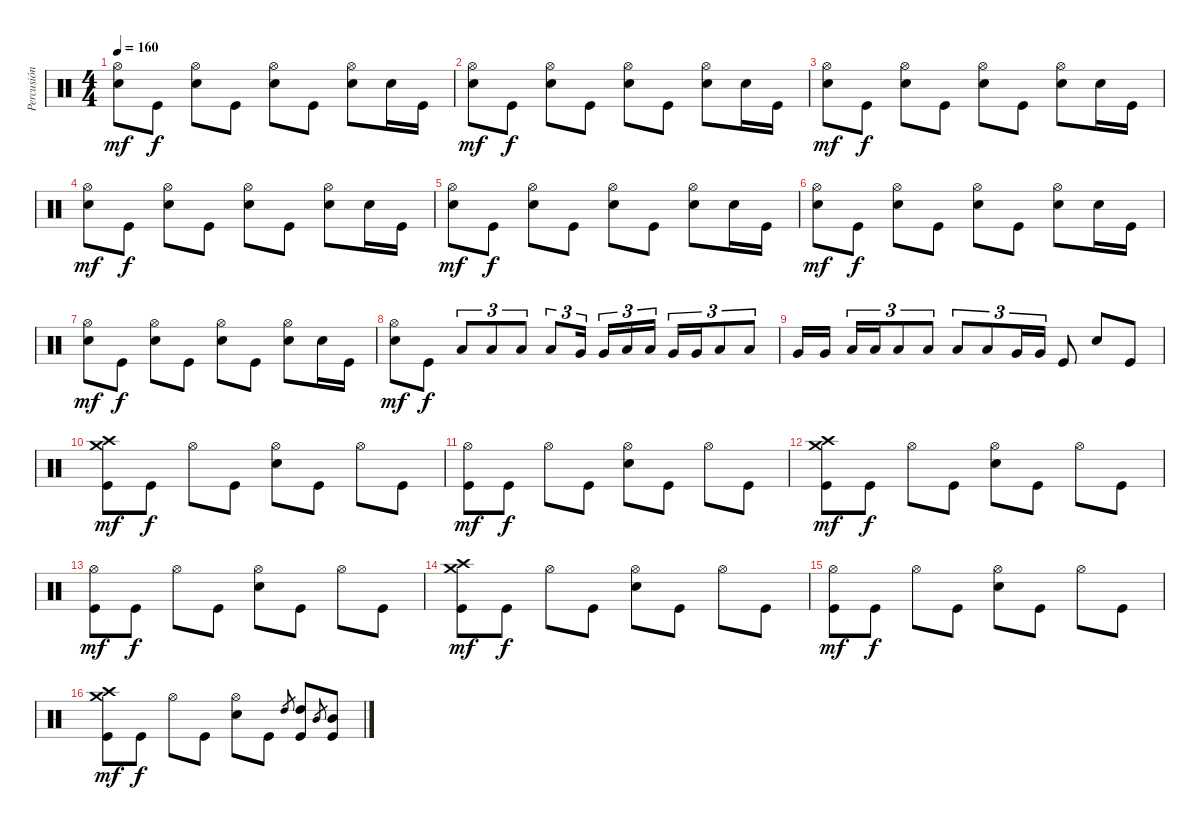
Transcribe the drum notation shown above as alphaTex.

\track ("Percusión" "Percusión") {instrument percussion}
\staff {score}
\articulation defaults
\ts (4 4)
\tempo 160
\clef neutral
\ks c
("Hi-Hat (open)" "Electric Snare (hit)").8{dy mf} "Kick (hit)".8{dy f} ("Hi-Hat (open)" "Electric Snare (hit)").8 "Kick (hit)".8 ("Hi-Hat (open)" "Electric Snare (hit)").8 "Kick (hit)".8 ("Hi-Hat (open)" "Electric Snare (hit)").8 "Snare (hit)".16 "Kick (hit)".16 |
("Hi-Hat (open)" "Electric Snare (hit)").8{dy mf} "Kick (hit)".8{dy f} ("Hi-Hat (open)" "Electric Snare (hit)").8 "Kick (hit)".8 ("Hi-Hat (open)" "Electric Snare (hit)").8 "Kick (hit)".8 ("Hi-Hat (open)" "Electric Snare (hit)").8 "Snare (hit)".16 "Kick (hit)".16 |
("Hi-Hat (open)" "Electric Snare (hit)").8{dy mf} "Kick (hit)".8{dy f} ("Hi-Hat (open)" "Electric Snare (hit)").8 "Kick (hit)".8 ("Hi-Hat (open)" "Electric Snare (hit)").8 "Kick (hit)".8 ("Hi-Hat (open)" "Electric Snare (hit)").8 "Snare (hit)".16 "Kick (hit)".16 |
("Hi-Hat (open)" "Electric Snare (hit)").8{dy mf} "Kick (hit)".8{dy f} ("Hi-Hat (open)" "Electric Snare (hit)").8 "Kick (hit)".8 ("Hi-Hat (open)" "Electric Snare (hit)").8 "Kick (hit)".8 ("Hi-Hat (open)" "Electric Snare (hit)").8 "Snare (hit)".16 "Kick (hit)".16 |
("Hi-Hat (open)" "Electric Snare (hit)").8{dy mf} "Kick (hit)".8{dy f} ("Hi-Hat (open)" "Electric Snare (hit)").8 "Kick (hit)".8 ("Hi-Hat (open)" "Electric Snare (hit)").8 "Kick (hit)".8 ("Hi-Hat (open)" "Electric Snare (hit)").8 "Snare (hit)".16 "Kick (hit)".16 |
("Hi-Hat (open)" "Electric Snare (hit)").8{dy mf} "Kick (hit)".8{dy f} ("Hi-Hat (open)" "Electric Snare (hit)").8 "Kick (hit)".8 ("Hi-Hat (open)" "Electric Snare (hit)").8 "Kick (hit)".8 ("Hi-Hat (open)" "Electric Snare (hit)").8 "Snare (hit)".16 "Kick (hit)".16 |
("Hi-Hat (open)" "Electric Snare (hit)").8{dy mf} "Kick (hit)".8{dy f} ("Hi-Hat (open)" "Electric Snare (hit)").8 "Kick (hit)".8 ("Hi-Hat (open)" "Electric Snare (hit)").8 "Kick (hit)".8 ("Hi-Hat (open)" "Electric Snare (hit)").8 "Snare (hit)".16 "Kick (hit)".16 |
("Hi-Hat (open)" "Electric Snare (hit)").8{dy mf} "Kick (hit)".8{dy f} "Low Tom (hit)".8{tu (3 2)} "Low Tom (hit)".8{tu (3 2)} "Low Tom (hit)".8{tu (3 2)} "Low Tom (hit)".8{tu (3 2)} "Very Low Tom (hit)".16{tu (3 2) beam splitsecondary} "Very Low Tom (hit)".16{tu (3 2)} "Low Tom (hit)".16{tu (3 2)} "Low Tom (hit)".16{tu (3 2)} "Very Low Tom (hit)".16{tu (3 2)} "Very Low Tom (hit)".16{tu (3 2)} "Low Tom (hit)".8{tu (3 2)} "Low Tom (hit)".8{tu (3 2)} |
"Very Low Tom (hit)".16 "Very Low Tom (hit)".16{beam splitsecondary} "Low Tom (hit)".16{tu (3 2)} "Low Tom (hit)".16{tu (3 2)} "Low Tom (hit)".8{tu (3 2)} "Low Tom (hit)".8{tu (3 2)} "Low Tom (hit)".8{tu (3 2)} "Low Tom (hit)".8{tu (3 2)} "Very Low Tom (hit)".16{tu (3 2)} "Very Low Tom (hit)".16{tu (3 2)} "Kick (hit)".8 "Electric Snare (hit)".8 "Kick (hit)".8 |
("Crash medium (hit)" "Crash high (hit)" "Kick (hit)").8{dy mf} "Kick (hit)".8{dy f} "Hi-Hat (open)".8 "Kick (hit)".8 ("Hi-Hat (open)" "Electric Snare (hit)").8 "Kick (hit)".8 "Hi-Hat (open)".8 "Kick (hit)".8 |
("Hi-Hat (open)" "Kick (hit)").8{dy mf} "Kick (hit)".8{dy f} "Hi-Hat (open)".8 "Kick (hit)".8 ("Hi-Hat (open)" "Electric Snare (hit)").8 "Kick (hit)".8 "Hi-Hat (open)".8 "Kick (hit)".8 |
("Crash medium (hit)" "Crash high (hit)" "Kick (hit)").8{dy mf} "Kick (hit)".8{dy f} "Hi-Hat (open)".8 "Kick (hit)".8 ("Hi-Hat (open)" "Electric Snare (hit)").8 "Kick (hit)".8 "Hi-Hat (open)".8 "Kick (hit)".8 |
("Hi-Hat (open)" "Kick (hit)").8{dy mf} "Kick (hit)".8{dy f} "Hi-Hat (open)".8 "Kick (hit)".8 ("Hi-Hat (open)" "Electric Snare (hit)").8 "Kick (hit)".8 "Hi-Hat (open)".8 "Kick (hit)".8 |
("Crash medium (hit)" "Crash high (hit)" "Kick (hit)").8{dy mf} "Kick (hit)".8{dy f} "Hi-Hat (open)".8 "Kick (hit)".8 ("Hi-Hat (open)" "Electric Snare (hit)").8 "Kick (hit)".8 "Hi-Hat (open)".8 "Kick (hit)".8 |
("Hi-Hat (open)" "Kick (hit)").8{dy mf} "Kick (hit)".8{dy f} "Hi-Hat (open)".8 "Kick (hit)".8 ("Hi-Hat (open)" "Electric Snare (hit)").8 "Kick (hit)".8 "Hi-Hat (open)".8 "Kick (hit)".8 |
("Crash medium (hit)" "Crash high (hit)" "Kick (hit)").8{dy mf} "Kick (hit)".8{dy f} "Hi-Hat (open)".8 "Kick (hit)".8 ("Hi-Hat (open)" "Electric Snare (hit)").8 "Kick (hit)".8 "High Tom (hit)".8{gr} ("High Tom (hit)" "Kick (hit)").8 "Mid Tom (hit)".8{gr} ("Mid Tom (hit)" "Kick (hit)").8
